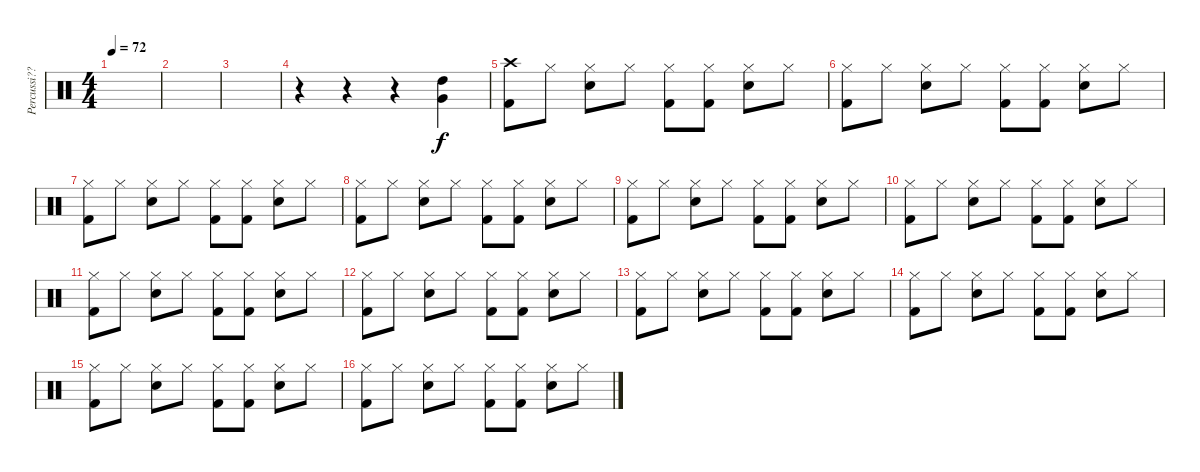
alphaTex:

\track ("Percussi??TEdit" "Percussi??") {instrument percussion}
\staff {score}
\articulation defaults
\ts (4 4)
\tempo 72
\clef neutral
\ks c
|
|
|
r.4 r.4 r.4 ("High Tom (hit)" "Very Low Tom (hit)").4 |
("Crash high (hit)" "Kick (hit) 2").8 "Hi-Hat (closed)".8 ("Hi-Hat (closed)" "Electric Snare (hit)").8 "Hi-Hat (closed)".8 ("Hi-Hat (closed)" "Kick (hit) 2").8 ("Hi-Hat (closed)" "Kick (hit) 2").8 ("Hi-Hat (closed)" "Electric Snare (hit)").8 "Hi-Hat (closed)".8 |
("Hi-Hat (closed)" "Kick (hit) 2").8 "Hi-Hat (closed)".8 ("Hi-Hat (closed)" "Electric Snare (hit)").8 "Hi-Hat (closed)".8 ("Hi-Hat (closed)" "Kick (hit) 2").8 ("Hi-Hat (closed)" "Kick (hit) 2").8 ("Hi-Hat (closed)" "Electric Snare (hit)").8 "Hi-Hat (closed)".8 |
("Hi-Hat (closed)" "Kick (hit) 2").8 "Hi-Hat (closed)".8 ("Hi-Hat (closed)" "Electric Snare (hit)").8 "Hi-Hat (closed)".8 ("Hi-Hat (closed)" "Kick (hit) 2").8 ("Hi-Hat (closed)" "Kick (hit) 2").8 ("Hi-Hat (closed)" "Electric Snare (hit)").8 "Hi-Hat (closed)".8 |
("Hi-Hat (closed)" "Kick (hit) 2").8 "Hi-Hat (closed)".8 ("Hi-Hat (closed)" "Electric Snare (hit)").8 "Hi-Hat (closed)".8 ("Hi-Hat (closed)" "Kick (hit) 2").8 ("Hi-Hat (closed)" "Kick (hit) 2").8 ("Hi-Hat (closed)" "Electric Snare (hit)").8 "Hi-Hat (closed)".8 |
("Hi-Hat (closed)" "Kick (hit) 2").8 "Hi-Hat (closed)".8 ("Hi-Hat (closed)" "Electric Snare (hit)").8 "Hi-Hat (closed)".8 ("Hi-Hat (closed)" "Kick (hit) 2").8 ("Hi-Hat (closed)" "Kick (hit) 2").8 ("Hi-Hat (closed)" "Electric Snare (hit)").8 "Hi-Hat (closed)".8 |
("Hi-Hat (closed)" "Kick (hit) 2").8 "Hi-Hat (closed)".8 ("Hi-Hat (closed)" "Electric Snare (hit)").8 "Hi-Hat (closed)".8 ("Hi-Hat (closed)" "Kick (hit) 2").8 ("Hi-Hat (closed)" "Kick (hit) 2").8 ("Hi-Hat (closed)" "Electric Snare (hit)").8 "Hi-Hat (closed)".8 |
("Hi-Hat (closed)" "Kick (hit) 2").8 "Hi-Hat (closed)".8 ("Hi-Hat (closed)" "Electric Snare (hit)").8 "Hi-Hat (closed)".8 ("Hi-Hat (closed)" "Kick (hit) 2").8 ("Hi-Hat (closed)" "Kick (hit) 2").8 ("Hi-Hat (closed)" "Electric Snare (hit)").8 "Hi-Hat (closed)".8 |
("Hi-Hat (closed)" "Kick (hit) 2").8 "Hi-Hat (closed)".8 ("Hi-Hat (closed)" "Electric Snare (hit)").8 "Hi-Hat (closed)".8 ("Hi-Hat (closed)" "Kick (hit) 2").8 ("Hi-Hat (closed)" "Kick (hit) 2").8 ("Hi-Hat (closed)" "Electric Snare (hit)").8 "Hi-Hat (closed)".8 |
("Hi-Hat (closed)" "Kick (hit) 2").8 "Hi-Hat (closed)".8 ("Hi-Hat (closed)" "Electric Snare (hit)").8 "Hi-Hat (closed)".8 ("Hi-Hat (closed)" "Kick (hit) 2").8 ("Hi-Hat (closed)" "Kick (hit) 2").8 ("Hi-Hat (closed)" "Electric Snare (hit)").8 "Hi-Hat (closed)".8 |
("Hi-Hat (closed)" "Kick (hit) 2").8 "Hi-Hat (closed)".8 ("Hi-Hat (closed)" "Electric Snare (hit)").8 "Hi-Hat (closed)".8 ("Hi-Hat (closed)" "Kick (hit) 2").8 ("Hi-Hat (closed)" "Kick (hit) 2").8 ("Hi-Hat (closed)" "Electric Snare (hit)").8 "Hi-Hat (closed)".8 |
("Hi-Hat (closed)" "Kick (hit) 2").8 "Hi-Hat (closed)".8 ("Hi-Hat (closed)" "Electric Snare (hit)").8 "Hi-Hat (closed)".8 ("Hi-Hat (closed)" "Kick (hit) 2").8 ("Hi-Hat (closed)" "Kick (hit) 2").8 ("Hi-Hat (closed)" "Electric Snare (hit)").8 "Hi-Hat (closed)".8 |
("Hi-Hat (closed)" "Kick (hit) 2").8 "Hi-Hat (closed)".8 ("Hi-Hat (closed)" "Electric Snare (hit)").8 "Hi-Hat (closed)".8 ("Hi-Hat (closed)" "Kick (hit) 2").8 ("Hi-Hat (closed)" "Kick (hit) 2").8 ("Hi-Hat (closed)" "Electric Snare (hit)").8 "Hi-Hat (closed)".8
